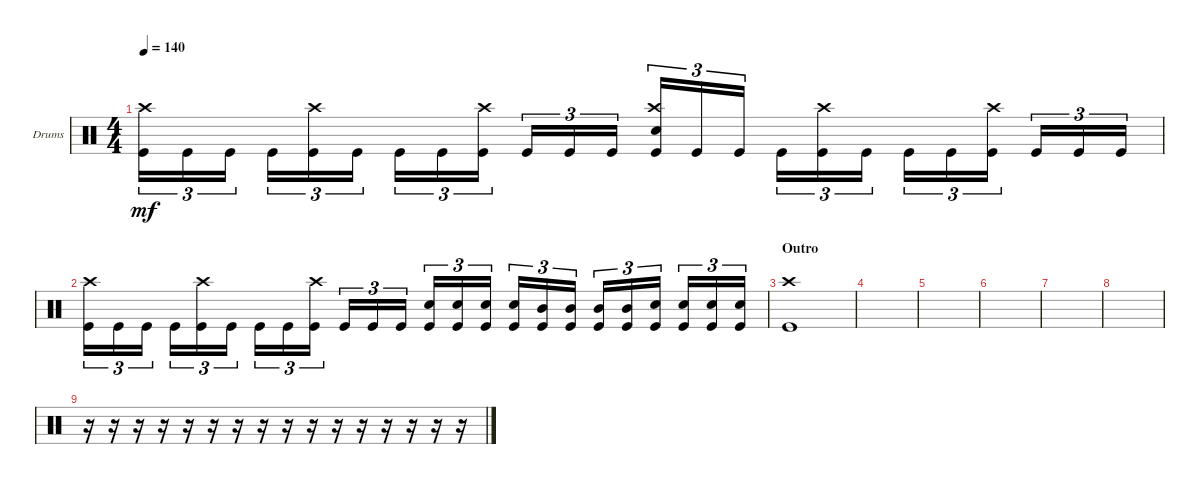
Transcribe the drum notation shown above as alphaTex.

\bracketExtendMode groupsimilarinstruments
\firstSystemTrackNameOrientation horizontal
\otherSystemsTrackNameOrientation horizontal
\track ("Drumkit" "Drums") {instrument percussion}
\staff {score}
\articulation defaults
\ts (4 4)
\tempo 140
\clef neutral
\ks c
("Kick (hit)" "Crash high (hit)").16{tu (3 2) dy mf} "Kick (hit)".16{tu (3 2)} "Kick (hit)".16{tu (3 2)} "Kick (hit)".16{tu (3 2)} ("Kick (hit)" "Crash high (hit)").16{tu (3 2)} "Kick (hit)".16{tu (3 2)} "Kick (hit)".16{tu (3 2)} "Kick (hit)".16{tu (3 2)} ("Kick (hit)" "Crash high (hit)").16{tu (3 2)} "Kick (hit)".16{tu (3 2)} "Kick (hit)".16{tu (3 2)} "Kick (hit)".16{tu (3 2)} ("Kick (hit)" "Snare (hit) 2" "Crash high (hit)").16{tu (3 2)} "Kick (hit)".16{tu (3 2)} "Kick (hit)".16{tu (3 2)} "Kick (hit)".16{tu (3 2)} ("Kick (hit)" "Crash high (hit)").16{tu (3 2)} "Kick (hit)".16{tu (3 2)} "Kick (hit)".16{tu (3 2)} "Kick (hit)".16{tu (3 2)} ("Kick (hit)" "Crash high (hit)").16{tu (3 2)} "Kick (hit)".16{tu (3 2)} "Kick (hit)".16{tu (3 2)} "Kick (hit)".16{tu (3 2)} |
("Kick (hit)" "Crash high (hit)").16{tu (3 2)} "Kick (hit)".16{tu (3 2)} "Kick (hit)".16{tu (3 2)} "Kick (hit)".16{tu (3 2)} ("Kick (hit)" "Crash high (hit)").16{tu (3 2)} "Kick (hit)".16{tu (3 2)} "Kick (hit)".16{tu (3 2)} "Kick (hit)".16{tu (3 2)} ("Kick (hit)" "Crash high (hit)").16{tu (3 2)} "Kick (hit)".16{tu (3 2)} "Kick (hit)".16{tu (3 2)} "Kick (hit)".16{tu (3 2)} ("Kick (hit)" "Snare (hit) 2").16{tu (3 2)} ("Kick (hit)" "Snare (hit) 2").16{tu (3 2)} ("Kick (hit)" "Snare (hit) 2").16{tu (3 2)} ("Kick (hit)" "Snare (hit) 2").16{tu (3 2)} ("Kick (hit)" "Mid Tom (hit)").16{tu (3 2)} ("Kick (hit)" "Mid Tom (hit)").16{tu (3 2)} ("Kick (hit)" "Mid Tom (hit)").16{tu (3 2)} ("Kick (hit)" "Mid Tom (hit)").16{tu (3 2)} ("Kick (hit)" "Snare (hit) 2").16{tu (3 2)} ("Kick (hit)" "Snare (hit) 2").16{tu (3 2)} ("Kick (hit)" "Snare (hit) 2").16{tu (3 2)} ("Kick (hit)" "Snare (hit) 2").16{tu (3 2)} |
\section ("" "Outro")
("Crash high (hit)" "Kick (hit)").1 |
|
|
|
|
|
r.16 r.16 r.16 r.16 r.16 r.16 r.16 r.16 r.16 r.16 r.16 r.16 r.16 r.16 r.16 r.16
